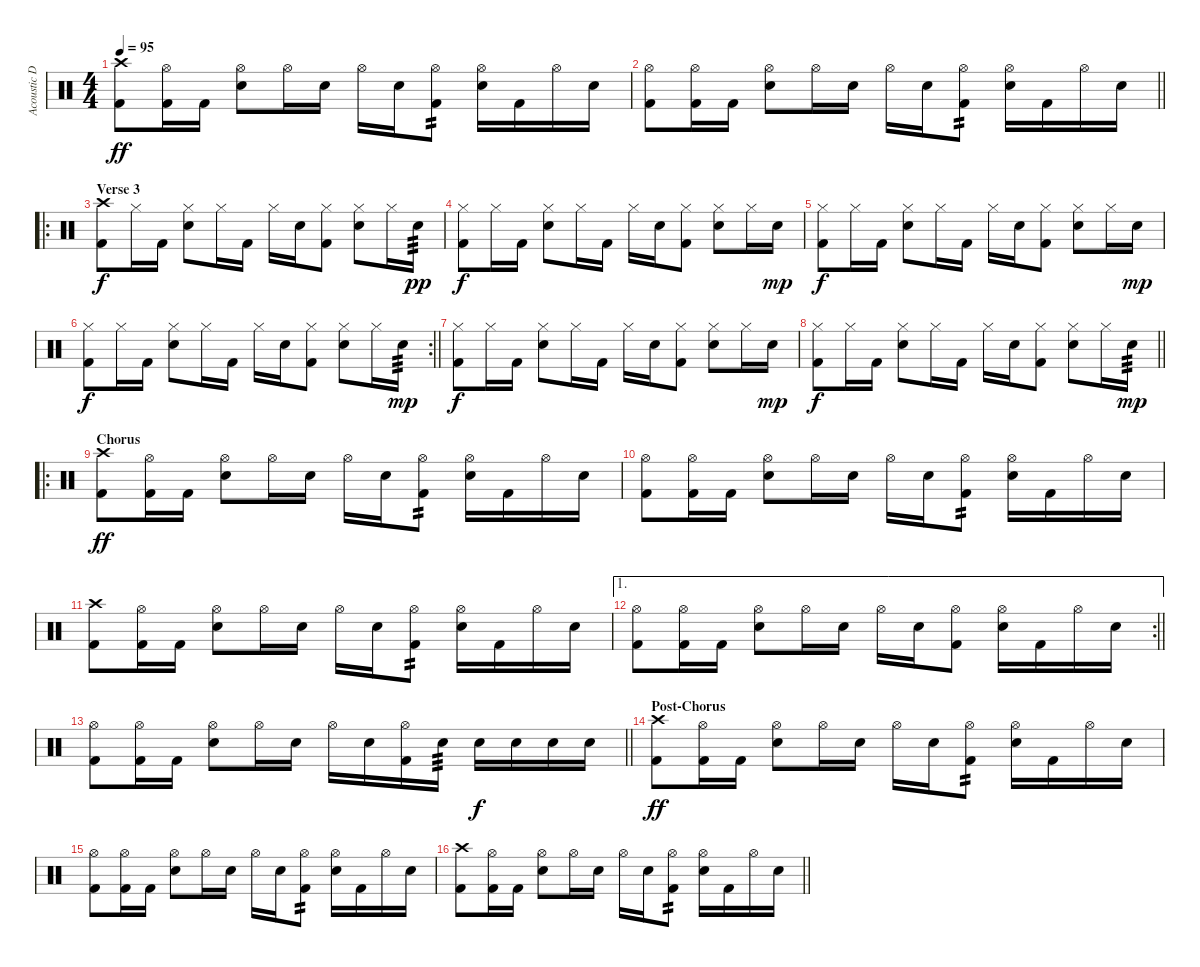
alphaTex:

\track ("Acoustic Drums" "Acoustic D") {instrument percussion}
\staff {score}
\articulation defaults
\ts (4 4)
\tempo 95
\clef neutral
\ks c
("Crash high (hit)" "Kick (hit) 2").8{dy ff} ("Hi-Hat (open)" "Kick (hit) 2").16 "Kick (hit) 2".16 ("Hi-Hat (open)" "Electric Snare (hit)").8 "Hi-Hat (open)".16 "Electric Snare (hit)".16 "Hi-Hat (open)".16 "Electric Snare (hit)".16 ("Hi-Hat (open)" "Kick (hit) 2").8{tp 2} ("Hi-Hat (open)" "Electric Snare (hit)").16 "Kick (hit) 2".16 "Hi-Hat (open)".16 "Electric Snare (hit)".16 |
\barLineRight lightlight
("Hi-Hat (open)" "Kick (hit) 2").8 ("Hi-Hat (open)" "Kick (hit) 2").16 "Kick (hit) 2".16 ("Hi-Hat (open)" "Electric Snare (hit)").8 "Hi-Hat (open)".16 "Electric Snare (hit)".16 "Hi-Hat (open)".16 "Electric Snare (hit)".16 ("Hi-Hat (open)" "Kick (hit) 2").8{tp 2} ("Hi-Hat (open)" "Electric Snare (hit)").16 "Kick (hit) 2".16 "Hi-Hat (open)".16 "Electric Snare (hit)".16 |
\ro
\section ("" "Verse 3")
("Crash high (hit)" "Kick (hit) 2").8{dy f} "Hi-Hat (closed)".16 "Kick (hit) 2".16 ("Hi-Hat (closed)" "Electric Snare (hit)").8 "Hi-Hat (closed)".16 "Kick (hit) 2".16 "Hi-Hat (closed)".16 "Electric Snare (hit)".16 ("Hi-Hat (closed)" "Kick (hit) 2").8 ("Hi-Hat (closed)" "Electric Snare (hit)").8 "Hi-Hat (closed)".16 "Electric Snare (hit)".16{tp 3 dy pp} |
("Hi-Hat (closed)" "Kick (hit) 2").8{dy f} "Hi-Hat (closed)".16 "Kick (hit) 2".16 ("Hi-Hat (closed)" "Electric Snare (hit)").8 "Hi-Hat (closed)".16 "Kick (hit) 2".16 "Hi-Hat (closed)".16 "Electric Snare (hit)".16 ("Hi-Hat (closed)" "Kick (hit) 2").8 ("Hi-Hat (closed)" "Electric Snare (hit)").8 "Hi-Hat (closed)".16 "Electric Snare (hit)".16{dy mp} |
("Hi-Hat (closed)" "Kick (hit) 2").8{dy f} "Hi-Hat (closed)".16 "Kick (hit) 2".16 ("Hi-Hat (closed)" "Electric Snare (hit)").8 "Hi-Hat (closed)".16 "Kick (hit) 2".16 "Hi-Hat (closed)".16 "Electric Snare (hit)".16 ("Hi-Hat (closed)" "Kick (hit) 2").8 ("Hi-Hat (closed)" "Electric Snare (hit)").8 "Hi-Hat (closed)".16 "Electric Snare (hit)".16{dy mp} |
\rc 2
\barLineRight lightlight
("Hi-Hat (closed)" "Kick (hit) 2").8{dy f} "Hi-Hat (closed)".16 "Kick (hit) 2".16 ("Hi-Hat (closed)" "Electric Snare (hit)").8 "Hi-Hat (closed)".16 "Kick (hit) 2".16 "Hi-Hat (closed)".16 "Electric Snare (hit)".16 ("Hi-Hat (closed)" "Kick (hit) 2").8 ("Hi-Hat (closed)" "Electric Snare (hit)").8 "Hi-Hat (closed)".16 "Electric Snare (hit)".16{tp 3 dy mp} |
\section ("" "")
("Hi-Hat (closed)" "Kick (hit) 2").8{dy f} "Hi-Hat (closed)".16 "Kick (hit) 2".16 ("Hi-Hat (closed)" "Electric Snare (hit)").8 "Hi-Hat (closed)".16 "Kick (hit) 2".16 "Hi-Hat (closed)".16 "Electric Snare (hit)".16 ("Hi-Hat (closed)" "Kick (hit) 2").8 ("Hi-Hat (closed)" "Electric Snare (hit)").8 "Hi-Hat (closed)".16 "Electric Snare (hit)".16{dy mp} |
\barLineRight lightlight
("Hi-Hat (closed)" "Kick (hit) 2").8{dy f} "Hi-Hat (closed)".16 "Kick (hit) 2".16 ("Hi-Hat (closed)" "Electric Snare (hit)").8 "Hi-Hat (closed)".16 "Kick (hit) 2".16 "Hi-Hat (closed)".16 "Electric Snare (hit)".16 ("Hi-Hat (closed)" "Kick (hit) 2").8 ("Hi-Hat (closed)" "Electric Snare (hit)").8 "Hi-Hat (closed)".16 "Electric Snare (hit)".16{tp 3 dy mp} |
\ro
\section ("" "Chorus")
("Crash high (hit)" "Kick (hit) 2").8{dy ff} ("Hi-Hat (open)" "Kick (hit) 2").16 "Kick (hit) 2".16 ("Hi-Hat (open)" "Electric Snare (hit)").8 "Hi-Hat (open)".16 "Electric Snare (hit)".16 "Hi-Hat (open)".16 "Electric Snare (hit)".16 ("Hi-Hat (open)" "Kick (hit) 2").8{tp 2} ("Hi-Hat (open)" "Electric Snare (hit)").16 "Kick (hit) 2".16 "Hi-Hat (open)".16 "Electric Snare (hit)".16 |
("Hi-Hat (open)" "Kick (hit) 2").8 ("Hi-Hat (open)" "Kick (hit) 2").16 "Kick (hit) 2".16 ("Hi-Hat (open)" "Electric Snare (hit)").8 "Hi-Hat (open)".16 "Electric Snare (hit)".16 "Hi-Hat (open)".16 "Electric Snare (hit)".16 ("Hi-Hat (open)" "Kick (hit) 2").8{tp 2} ("Hi-Hat (open)" "Electric Snare (hit)").16 "Kick (hit) 2".16 "Hi-Hat (open)".16 "Electric Snare (hit)".16 |
("Crash high (hit)" "Kick (hit) 2").8 ("Hi-Hat (open)" "Kick (hit) 2").16 "Kick (hit) 2".16 ("Hi-Hat (open)" "Electric Snare (hit)").8 "Hi-Hat (open)".16 "Electric Snare (hit)".16 "Hi-Hat (open)".16 "Electric Snare (hit)".16 ("Hi-Hat (open)" "Kick (hit) 2").8{tp 2} ("Hi-Hat (open)" "Electric Snare (hit)").16 "Kick (hit) 2".16 "Hi-Hat (open)".16 "Electric Snare (hit)".16 |
\ae 1
\rc 2
\barLineRight lightlight
("Hi-Hat (open)" "Kick (hit) 2").8 ("Hi-Hat (open)" "Kick (hit) 2").16 "Kick (hit) 2".16 ("Hi-Hat (open)" "Electric Snare (hit)").8 "Hi-Hat (open)".16 "Electric Snare (hit)".16 "Hi-Hat (open)".16 "Electric Snare (hit)".16 ("Hi-Hat (open)" "Kick (hit) 2").8 ("Hi-Hat (open)" "Electric Snare (hit)").16 "Kick (hit) 2".16 "Hi-Hat (open)".16 "Electric Snare (hit)".16 |
\barLineRight lightlight
("Hi-Hat (open)" "Kick (hit) 2").8 ("Hi-Hat (open)" "Kick (hit) 2").16 "Kick (hit) 2".16 ("Hi-Hat (open)" "Electric Snare (hit)").8 "Hi-Hat (open)".16 "Electric Snare (hit)".16 "Hi-Hat (open)".16 "Electric Snare (hit)".16 ("Hi-Hat (open)" "Kick (hit) 2").16 "Electric Snare (hit)".16{tp 3} "Electric Snare (hit)".16{dy f} "Electric Snare (hit)".16 "Electric Snare (hit)".16 "Electric Snare (hit)".16 |
\section ("" "Post-Chorus")
("Crash high (hit)" "Kick (hit) 2").8{dy ff} ("Hi-Hat (open)" "Kick (hit) 2").16 "Kick (hit) 2".16 ("Hi-Hat (open)" "Electric Snare (hit)").8 "Hi-Hat (open)".16 "Electric Snare (hit)".16 "Hi-Hat (open)".16 "Electric Snare (hit)".16 ("Hi-Hat (open)" "Kick (hit) 2").8{tp 2} ("Hi-Hat (open)" "Electric Snare (hit)").16 "Kick (hit) 2".16 "Hi-Hat (open)".16 "Electric Snare (hit)".16 |
("Hi-Hat (open)" "Kick (hit) 2").8 ("Hi-Hat (open)" "Kick (hit) 2").16 "Kick (hit) 2".16 ("Hi-Hat (open)" "Electric Snare (hit)").8 "Hi-Hat (open)".16 "Electric Snare (hit)".16 "Hi-Hat (open)".16 "Electric Snare (hit)".16 ("Hi-Hat (open)" "Kick (hit) 2").8{tp 2} ("Hi-Hat (open)" "Electric Snare (hit)").16 "Kick (hit) 2".16 "Hi-Hat (open)".16 "Electric Snare (hit)".16 |
\barLineRight lightlight
("Crash high (hit)" "Kick (hit) 2").8 ("Hi-Hat (open)" "Kick (hit) 2").16 "Kick (hit) 2".16 ("Hi-Hat (open)" "Electric Snare (hit)").8 "Hi-Hat (open)".16 "Electric Snare (hit)".16 "Hi-Hat (open)".16 "Electric Snare (hit)".16 ("Hi-Hat (open)" "Kick (hit) 2").8{tp 2} ("Hi-Hat (open)" "Electric Snare (hit)").16 "Kick (hit) 2".16 "Hi-Hat (open)".16 "Electric Snare (hit)".16
